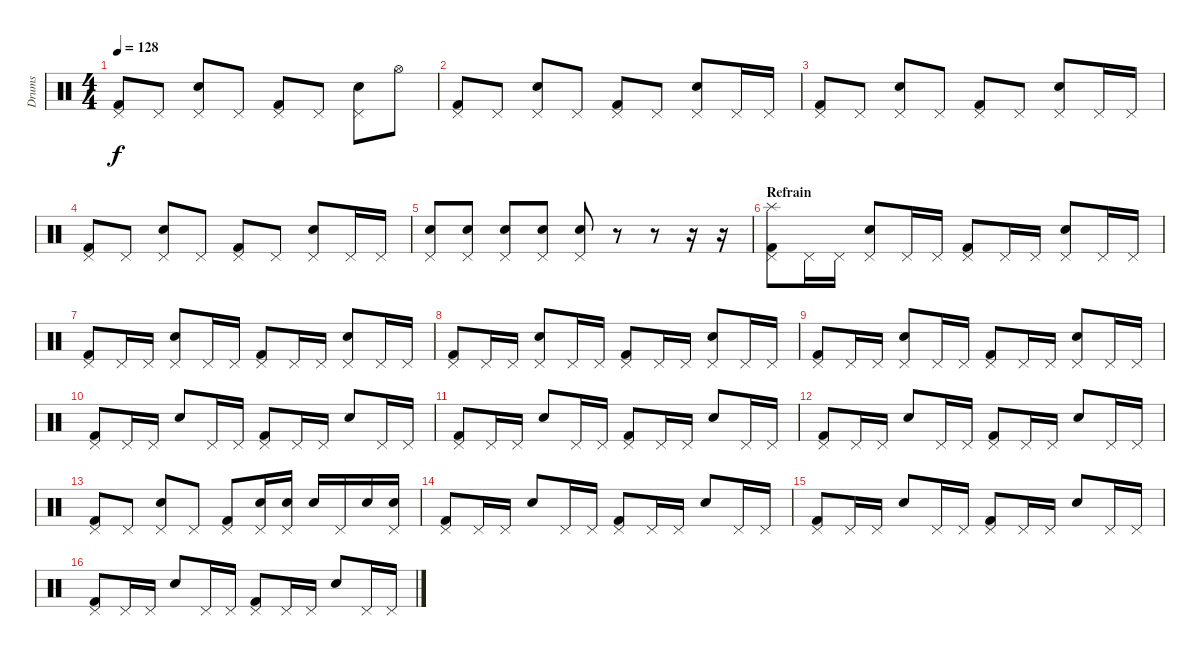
\track ("Drums" "Drums") {instrument percussion}
\staff {score}
\articulation defaults
\ts (4 4)
\tempo 128
\clef neutral
\ks c
("Pedal Hi-Hat (hit)" "Kick (hit) 2").8{dy f} "Pedal Hi-Hat (hit)".8 ("Pedal Hi-Hat (hit)" "Snare (hit) 2").8 "Pedal Hi-Hat (hit)".8 ("Pedal Hi-Hat (hit)" "Kick (hit) 2").8 "Pedal Hi-Hat (hit)".8 ("Pedal Hi-Hat (hit)" "Snare (hit) 2").8 "Hi-Hat (open)".8 |
("Pedal Hi-Hat (hit)" "Kick (hit) 2").8 "Pedal Hi-Hat (hit)".8 ("Pedal Hi-Hat (hit)" "Snare (hit) 2").8 "Pedal Hi-Hat (hit)".8 ("Pedal Hi-Hat (hit)" "Kick (hit) 2").8 "Pedal Hi-Hat (hit)".8 ("Pedal Hi-Hat (hit)" "Snare (hit) 2").8 "Pedal Hi-Hat (hit)".16 "Pedal Hi-Hat (hit)".16 |
("Pedal Hi-Hat (hit)" "Kick (hit) 2").8 "Pedal Hi-Hat (hit)".8 ("Pedal Hi-Hat (hit)" "Snare (hit) 2").8 "Pedal Hi-Hat (hit)".8 ("Pedal Hi-Hat (hit)" "Kick (hit) 2").8 "Pedal Hi-Hat (hit)".8 ("Pedal Hi-Hat (hit)" "Snare (hit) 2").8 "Pedal Hi-Hat (hit)".16 "Pedal Hi-Hat (hit)".16 |
("Pedal Hi-Hat (hit)" "Kick (hit) 2").8 "Pedal Hi-Hat (hit)".8 ("Pedal Hi-Hat (hit)" "Snare (hit) 2").8 "Pedal Hi-Hat (hit)".8 ("Pedal Hi-Hat (hit)" "Kick (hit) 2").8 "Pedal Hi-Hat (hit)".8 ("Pedal Hi-Hat (hit)" "Snare (hit) 2").8 "Pedal Hi-Hat (hit)".16 "Pedal Hi-Hat (hit)".16 |
("Pedal Hi-Hat (hit)" "Snare (hit) 2").8 ("Pedal Hi-Hat (hit)" "Snare (hit) 2").8 ("Pedal Hi-Hat (hit)" "Snare (hit) 2").8 ("Pedal Hi-Hat (hit)" "Snare (hit) 2").8 ("Pedal Hi-Hat (hit)" "Snare (hit) 2").8 r.8 r.8 r.16 r.16 |
\section ("" "Refrain")
("Splash (hit)" "Pedal Hi-Hat (hit)" "Kick (hit) 2").8{volume 11} "Pedal Hi-Hat (hit)".16 "Pedal Hi-Hat (hit)".16 ("Pedal Hi-Hat (hit)" "Snare (hit) 2").8 "Pedal Hi-Hat (hit)".16 "Pedal Hi-Hat (hit)".16 ("Pedal Hi-Hat (hit)" "Kick (hit) 2").8 "Pedal Hi-Hat (hit)".16 "Pedal Hi-Hat (hit)".16 ("Pedal Hi-Hat (hit)" "Snare (hit) 2").8 "Pedal Hi-Hat (hit)".16 "Pedal Hi-Hat (hit)".16 |
("Pedal Hi-Hat (hit)" "Kick (hit) 2").8 "Pedal Hi-Hat (hit)".16 "Pedal Hi-Hat (hit)".16 ("Pedal Hi-Hat (hit)" "Snare (hit) 2").8 "Pedal Hi-Hat (hit)".16 "Pedal Hi-Hat (hit)".16 ("Pedal Hi-Hat (hit)" "Kick (hit) 2").8 "Pedal Hi-Hat (hit)".16 "Pedal Hi-Hat (hit)".16 ("Pedal Hi-Hat (hit)" "Snare (hit) 2").8 "Pedal Hi-Hat (hit)".16 "Pedal Hi-Hat (hit)".16 |
("Pedal Hi-Hat (hit)" "Kick (hit) 2").8 "Pedal Hi-Hat (hit)".16 "Pedal Hi-Hat (hit)".16 ("Pedal Hi-Hat (hit)" "Snare (hit) 2").8 "Pedal Hi-Hat (hit)".16 "Pedal Hi-Hat (hit)".16 ("Pedal Hi-Hat (hit)" "Kick (hit) 2").8 "Pedal Hi-Hat (hit)".16 "Pedal Hi-Hat (hit)".16 ("Pedal Hi-Hat (hit)" "Snare (hit) 2").8 "Pedal Hi-Hat (hit)".16 "Pedal Hi-Hat (hit)".16 |
("Pedal Hi-Hat (hit)" "Kick (hit) 2").8 "Pedal Hi-Hat (hit)".16 "Pedal Hi-Hat (hit)".16 ("Pedal Hi-Hat (hit)" "Snare (hit) 2").8 "Pedal Hi-Hat (hit)".16 "Pedal Hi-Hat (hit)".16 ("Pedal Hi-Hat (hit)" "Kick (hit) 2").8 "Pedal Hi-Hat (hit)".16 "Pedal Hi-Hat (hit)".16 ("Pedal Hi-Hat (hit)" "Snare (hit) 2").8 "Pedal Hi-Hat (hit)".16 "Pedal Hi-Hat (hit)".16 |
("Pedal Hi-Hat (hit)" "Kick (hit) 2").8 "Pedal Hi-Hat (hit)".16 "Pedal Hi-Hat (hit)".16 "Snare (hit) 2".8 "Pedal Hi-Hat (hit)".16 "Pedal Hi-Hat (hit)".16 ("Pedal Hi-Hat (hit)" "Kick (hit) 2").8 "Pedal Hi-Hat (hit)".16 "Pedal Hi-Hat (hit)".16 "Snare (hit) 2".8 "Pedal Hi-Hat (hit)".16 "Pedal Hi-Hat (hit)".16 |
("Pedal Hi-Hat (hit)" "Kick (hit) 2").8 "Pedal Hi-Hat (hit)".16 "Pedal Hi-Hat (hit)".16 "Snare (hit) 2".8 "Pedal Hi-Hat (hit)".16 "Pedal Hi-Hat (hit)".16 ("Pedal Hi-Hat (hit)" "Kick (hit) 2").8 "Pedal Hi-Hat (hit)".16 "Pedal Hi-Hat (hit)".16 "Snare (hit) 2".8 "Pedal Hi-Hat (hit)".16 "Pedal Hi-Hat (hit)".16 |
("Pedal Hi-Hat (hit)" "Kick (hit) 2").8 "Pedal Hi-Hat (hit)".16 "Pedal Hi-Hat (hit)".16 "Snare (hit) 2".8 "Pedal Hi-Hat (hit)".16 "Pedal Hi-Hat (hit)".16 ("Pedal Hi-Hat (hit)" "Kick (hit) 2").8 "Pedal Hi-Hat (hit)".16 "Pedal Hi-Hat (hit)".16 "Snare (hit) 2".8 "Pedal Hi-Hat (hit)".16 "Pedal Hi-Hat (hit)".16 |
("Pedal Hi-Hat (hit)" "Kick (hit) 2").8{volume 12} "Pedal Hi-Hat (hit)".8 ("Pedal Hi-Hat (hit)" "Snare (hit) 2").8 "Pedal Hi-Hat (hit)".8 ("Pedal Hi-Hat (hit)" "Kick (hit) 2").8 ("Pedal Hi-Hat (hit)" "Snare (hit) 2").16 ("Pedal Hi-Hat (hit)" "Snare (hit) 2").16 "Snare (hit) 2".16 "Pedal Hi-Hat (hit)".16 "Snare (hit) 2".16 ("Pedal Hi-Hat (hit)" "Snare (hit) 2").16 |
("Pedal Hi-Hat (hit)" "Kick (hit) 2").8{volume 11} "Pedal Hi-Hat (hit)".16 "Pedal Hi-Hat (hit)".16 "Snare (hit) 2".8 "Pedal Hi-Hat (hit)".16 "Pedal Hi-Hat (hit)".16 ("Pedal Hi-Hat (hit)" "Kick (hit) 2").8 "Pedal Hi-Hat (hit)".16 "Pedal Hi-Hat (hit)".16 "Snare (hit) 2".8 "Pedal Hi-Hat (hit)".16 "Pedal Hi-Hat (hit)".16 |
("Pedal Hi-Hat (hit)" "Kick (hit) 2").8 "Pedal Hi-Hat (hit)".16 "Pedal Hi-Hat (hit)".16 "Snare (hit) 2".8 "Pedal Hi-Hat (hit)".16 "Pedal Hi-Hat (hit)".16 ("Pedal Hi-Hat (hit)" "Kick (hit) 2").8 "Pedal Hi-Hat (hit)".16 "Pedal Hi-Hat (hit)".16 "Snare (hit) 2".8 "Pedal Hi-Hat (hit)".16 "Pedal Hi-Hat (hit)".16 |
("Pedal Hi-Hat (hit)" "Kick (hit) 2").8 "Pedal Hi-Hat (hit)".16 "Pedal Hi-Hat (hit)".16 "Snare (hit) 2".8 "Pedal Hi-Hat (hit)".16 "Pedal Hi-Hat (hit)".16 ("Pedal Hi-Hat (hit)" "Kick (hit) 2").8 "Pedal Hi-Hat (hit)".16 "Pedal Hi-Hat (hit)".16 "Snare (hit) 2".8 "Pedal Hi-Hat (hit)".16 "Pedal Hi-Hat (hit)".16
